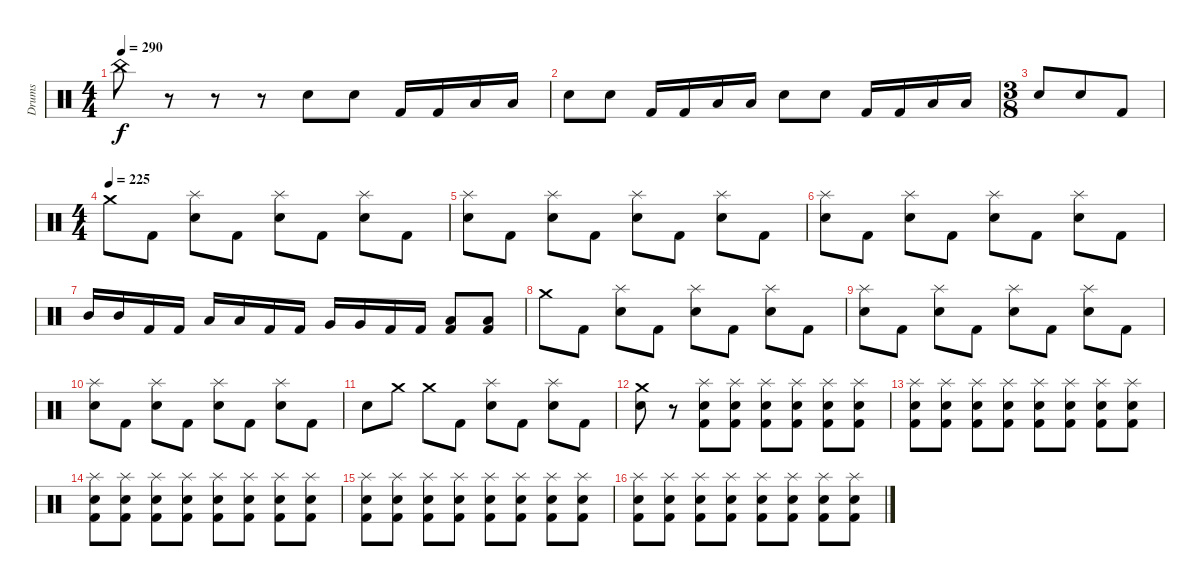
\track ("Drums" "Drums") {instrument percussion}
\staff {score}
\articulation defaults
\ts (4 4)
\tempo 290
\clef neutral
\ks c "China (hit)".8{dy f}
r.8 r.8 r.8 "Snare (hit) 2".8 "Snare (hit) 2".8 "Kick (hit) 2".16 "Kick (hit) 2".16 "Low Floor Tom (hit)".16 "Low Floor Tom (hit)".16 |
"Snare (hit) 2".8 "Snare (hit) 2".8 "Kick (hit) 2".16 "Kick (hit) 2".16 "Low Floor Tom (hit)".16 "Low Floor Tom (hit)".16 "Snare (hit) 2".8 "Snare (hit) 2".8 "Kick (hit) 2".16 "Kick (hit) 2".16 "Low Floor Tom (hit)".16 "Low Floor Tom (hit)".16 |
\ts (3 8)
"Snare (hit) 2".8 "Snare (hit) 2".8 "Kick (hit) 2".8 |
\ts (4 4)
\tempo (225)
"Crash medium (hit)".8 "Kick (hit) 2".8 ("Splash (hit)" "Snare (hit) 2").8 "Kick (hit) 2".8 ("Splash (hit)" "Snare (hit) 2").8 "Kick (hit) 2".8 ("Splash (hit)" "Snare (hit) 2").8 "Kick (hit) 2".8 |
("Splash (hit)" "Snare (hit) 2").8 "Kick (hit) 2".8 ("Splash (hit)" "Snare (hit) 2").8 "Kick (hit) 2".8 ("Splash (hit)" "Snare (hit) 2").8 "Kick (hit) 2".8 ("Splash (hit)" "Snare (hit) 2").8 "Kick (hit) 2".8 |
("Splash (hit)" "Snare (hit) 2").8 "Kick (hit) 2".8 ("Splash (hit)" "Snare (hit) 2").8 "Kick (hit) 2".8 ("Splash (hit)" "Snare (hit) 2").8 "Kick (hit) 2".8 ("Splash (hit)" "Snare (hit) 2").8 "Kick (hit) 2".8 |
"Mid Tom (hit)".16 "Mid Tom (hit)".16 "Kick (hit) 2".16 "Kick (hit) 2".16 "Low Tom (hit)".16 "Low Tom (hit)".16 "Kick (hit) 2".16 "Kick (hit) 2".16 "Very Low Tom (hit)".16 "Very Low Tom (hit)".16 "Kick (hit) 2".16 "Kick (hit) 2".16 ("Low Tom (hit)" "Kick (hit) 2").8 ("Low Floor Tom (hit)" "Kick (hit) 2").8 |
"Crash medium (hit)".8 "Kick (hit) 2".8 ("Splash (hit)" "Snare (hit) 2").8 "Kick (hit) 2".8 ("Splash (hit)" "Snare (hit) 2").8 "Kick (hit) 2".8 ("Splash (hit)" "Snare (hit) 2").8 "Kick (hit) 2".8 |
("Splash (hit)" "Snare (hit) 2").8 "Kick (hit) 2".8 ("Splash (hit)" "Snare (hit) 2").8 "Kick (hit) 2".8 ("Splash (hit)" "Snare (hit) 2").8 "Kick (hit) 2".8 ("Splash (hit)" "Snare (hit) 2").8 "Kick (hit) 2".8 |
("Splash (hit)" "Snare (hit) 2").8 "Kick (hit) 2".8 ("Splash (hit)" "Snare (hit) 2").8 "Kick (hit) 2".8 ("Splash (hit)" "Snare (hit) 2").8 "Kick (hit) 2".8 ("Splash (hit)" "Snare (hit) 2").8 "Kick (hit) 2".8 |
"Snare (hit) 2".8 "Crash medium (hit)".8 "Crash medium (hit)".8 "Kick (hit) 2".8 ("Splash (hit)" "Snare (hit) 2").8 "Kick (hit) 2".8 ("Splash (hit)" "Snare (hit) 2").8 "Kick (hit) 2".8 |
("Crash medium (hit)" "Snare (hit) 2").8 r.8 ("Splash (hit)" "Snare (hit) 2" "Kick (hit) 2").8 ("Splash (hit)" "Snare (hit) 2" "Kick (hit) 2").8 ("Splash (hit)" "Snare (hit) 2" "Kick (hit) 2").8 ("Splash (hit)" "Snare (hit) 2" "Kick (hit) 2").8 ("Splash (hit)" "Snare (hit) 2" "Kick (hit) 2").8 ("Splash (hit)" "Snare (hit) 2" "Kick (hit) 2").8 |
("Splash (hit)" "Snare (hit) 2" "Kick (hit) 2").8 ("Splash (hit)" "Snare (hit) 2" "Kick (hit) 2").8 ("Splash (hit)" "Snare (hit) 2" "Kick (hit) 2").8 ("Splash (hit)" "Snare (hit) 2" "Kick (hit) 2").8 ("Splash (hit)" "Snare (hit) 2" "Kick (hit) 2").8 ("Splash (hit)" "Snare (hit) 2" "Kick (hit) 2").8 ("Splash (hit)" "Snare (hit) 2" "Kick (hit) 2").8 ("Splash (hit)" "Snare (hit) 2" "Kick (hit) 2").8 |
("Splash (hit)" "Snare (hit) 2" "Kick (hit) 2").8 ("Splash (hit)" "Snare (hit) 2" "Kick (hit) 2").8 ("Splash (hit)" "Snare (hit) 2" "Kick (hit) 2").8 ("Splash (hit)" "Snare (hit) 2" "Kick (hit) 2").8 ("Splash (hit)" "Snare (hit) 2" "Kick (hit) 2").8 ("Splash (hit)" "Snare (hit) 2" "Kick (hit) 2").8 ("Splash (hit)" "Snare (hit) 2" "Kick (hit) 2").8 ("Splash (hit)" "Snare (hit) 2" "Kick (hit) 2").8 |
("Splash (hit)" "Snare (hit) 2" "Kick (hit) 2").8 ("Splash (hit)" "Snare (hit) 2" "Kick (hit) 2").8 ("Splash (hit)" "Snare (hit) 2" "Kick (hit) 2").8 ("Splash (hit)" "Snare (hit) 2" "Kick (hit) 2").8 ("Splash (hit)" "Snare (hit) 2" "Kick (hit) 2").8 ("Splash (hit)" "Snare (hit) 2" "Kick (hit) 2").8 ("Splash (hit)" "Snare (hit) 2" "Kick (hit) 2").8 ("Splash (hit)" "Snare (hit) 2" "Kick (hit) 2").8 |
("Splash (hit)" "Snare (hit) 2" "Kick (hit) 2").8 ("Splash (hit)" "Snare (hit) 2" "Kick (hit) 2").8 ("Splash (hit)" "Snare (hit) 2" "Kick (hit) 2").8 ("Splash (hit)" "Snare (hit) 2" "Kick (hit) 2").8 ("Splash (hit)" "Snare (hit) 2" "Kick (hit) 2").8 ("Splash (hit)" "Snare (hit) 2" "Kick (hit) 2").8 ("Splash (hit)" "Snare (hit) 2" "Kick (hit) 2").8 ("Splash (hit)" "Snare (hit) 2" "Kick (hit) 2").8
